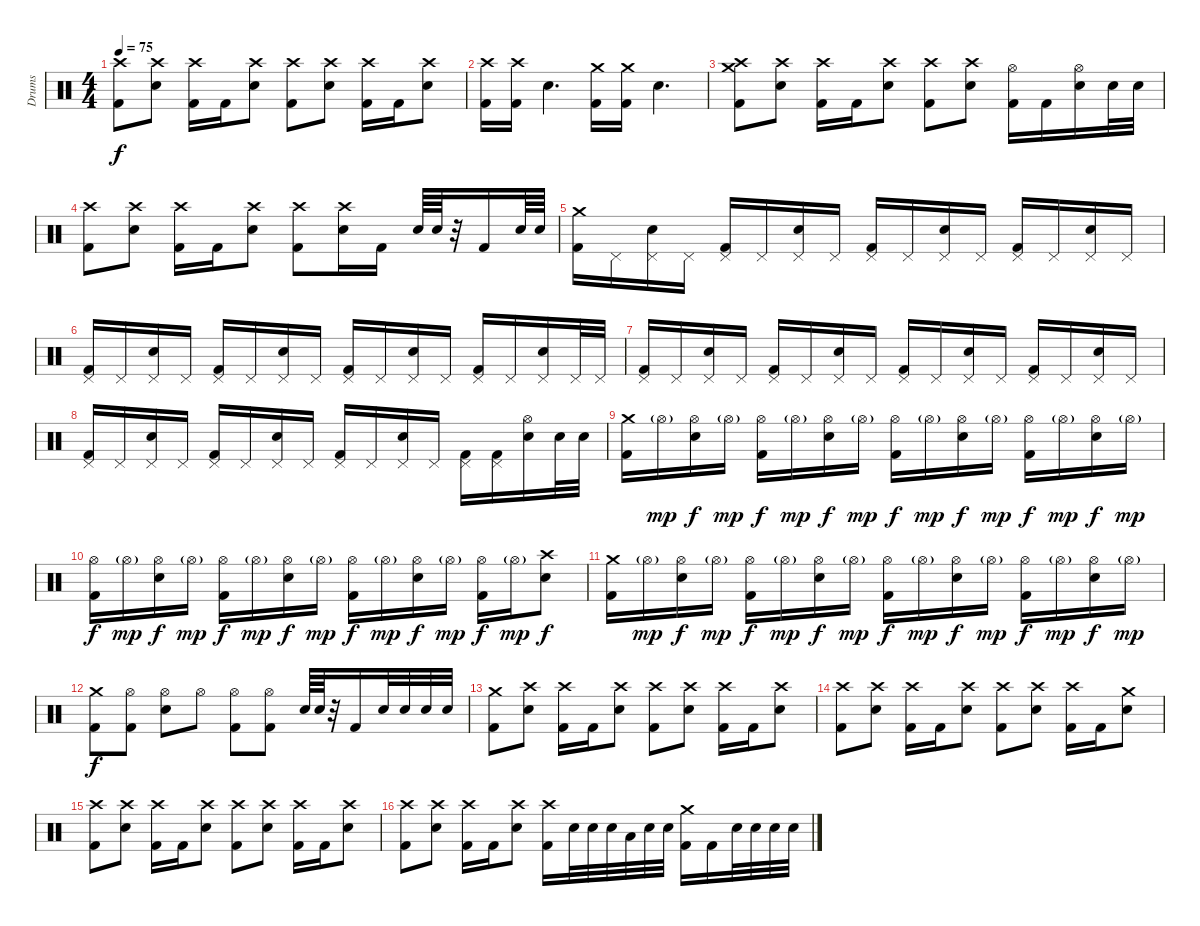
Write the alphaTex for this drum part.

\track ("Drums" "Drums") {instrument percussion bank 34}
\staff {score}
\articulation defaults
\ts (4 4)
\tempo 75
\clef neutral
\ks c
("Crash high (hit)" "Kick (hit) 2").8{dy f} ("Crash high (hit)" "Electric Snare (hit)").8 ("Crash high (hit)" "Kick (hit) 2").16 "Kick (hit) 2".16 ("Crash high (hit)" "Electric Snare (hit)").8 ("Crash high (hit)" "Kick (hit) 2").8 ("Crash high (hit)" "Electric Snare (hit)").8 ("Crash high (hit)" "Kick (hit) 2").16 "Kick (hit) 2".16 ("Crash high (hit)" "Electric Snare (hit)").8 |
("Crash high (hit)" "Kick (hit) 2").16 ("Crash high (hit)" "Kick (hit) 2").16 "Snare (hit)".4{d volume 0} ("Crash medium (hit)" "Kick (hit) 2").16{volume 16} ("Crash medium (hit)" "Kick (hit) 2").16 "Snare (hit)".4{d volume 0} |
("Crash medium (hit)" "Crash high (hit)" "Kick (hit) 2").8{volume 16} ("Crash high (hit)" "Electric Snare (hit)").8 ("Crash high (hit)" "Kick (hit) 2").16 "Kick (hit) 2".16 ("Crash high (hit)" "Electric Snare (hit)").8 ("Crash high (hit)" "Kick (hit) 2").8 ("Crash high (hit)" "Electric Snare (hit)").8 ("Hi-Hat (open)" "Kick (hit) 2").16 "Kick (hit) 2".16 ("Hi-Hat (open)" "Electric Snare (hit)").16 "Electric Snare (hit)".32 "Electric Snare (hit)".32 |
("Crash high (hit)" "Kick (hit) 2").8 ("Crash high (hit)" "Electric Snare (hit)").8 ("Crash high (hit)" "Kick (hit) 2").16 "Kick (hit) 2".16 ("Crash high (hit)" "Electric Snare (hit)").8 ("Crash high (hit)" "Kick (hit) 2").8 ("Crash high (hit)" "Electric Snare (hit)").16 "Kick (hit) 2".16 "Electric Snare (hit)".64 "Electric Snare (hit)".64 r.32 "Kick (hit) 2".16 "Electric Snare (hit)".64 "Electric Snare (hit)".64 |
("Crash medium (hit)" "Kick (hit) 2").16 "Pedal Hi-Hat (hit)".16 ("Pedal Hi-Hat (hit)" "Electric Snare (hit)").16 "Pedal Hi-Hat (hit)".16 ("Pedal Hi-Hat (hit)" "Kick (hit) 2").16 "Pedal Hi-Hat (hit)".16 ("Pedal Hi-Hat (hit)" "Electric Snare (hit)").16 "Pedal Hi-Hat (hit)".16 ("Pedal Hi-Hat (hit)" "Kick (hit) 2").16 "Pedal Hi-Hat (hit)".16 ("Pedal Hi-Hat (hit)" "Electric Snare (hit)").16 "Pedal Hi-Hat (hit)".16 ("Pedal Hi-Hat (hit)" "Kick (hit) 2").16 "Pedal Hi-Hat (hit)".16 ("Pedal Hi-Hat (hit)" "Electric Snare (hit)").16 "Pedal Hi-Hat (hit)".16 |
("Pedal Hi-Hat (hit)" "Kick (hit) 2").16 "Pedal Hi-Hat (hit)".16 ("Pedal Hi-Hat (hit)" "Electric Snare (hit)").16 "Pedal Hi-Hat (hit)".16 ("Pedal Hi-Hat (hit)" "Kick (hit) 2").16 "Pedal Hi-Hat (hit)".16 ("Pedal Hi-Hat (hit)" "Electric Snare (hit)").16 "Pedal Hi-Hat (hit)".16 ("Pedal Hi-Hat (hit)" "Kick (hit) 2").16 "Pedal Hi-Hat (hit)".16 ("Pedal Hi-Hat (hit)" "Electric Snare (hit)").16 "Pedal Hi-Hat (hit)".16 ("Pedal Hi-Hat (hit)" "Kick (hit) 2").16 "Pedal Hi-Hat (hit)".16 ("Pedal Hi-Hat (hit)" "Electric Snare (hit)").16 "Pedal Hi-Hat (hit)".32 "Pedal Hi-Hat (hit)".32 |
("Pedal Hi-Hat (hit)" "Kick (hit) 2").16 "Pedal Hi-Hat (hit)".16 ("Pedal Hi-Hat (hit)" "Electric Snare (hit)").16 "Pedal Hi-Hat (hit)".16 ("Pedal Hi-Hat (hit)" "Kick (hit) 2").16 "Pedal Hi-Hat (hit)".16 ("Pedal Hi-Hat (hit)" "Electric Snare (hit)").16 "Pedal Hi-Hat (hit)".16 ("Pedal Hi-Hat (hit)" "Kick (hit) 2").16 "Pedal Hi-Hat (hit)".16 ("Pedal Hi-Hat (hit)" "Electric Snare (hit)").16 "Pedal Hi-Hat (hit)".16 ("Pedal Hi-Hat (hit)" "Kick (hit) 2").16 "Pedal Hi-Hat (hit)".16 ("Pedal Hi-Hat (hit)" "Electric Snare (hit)").16 "Pedal Hi-Hat (hit)".16 |
("Pedal Hi-Hat (hit)" "Kick (hit) 2").16 "Pedal Hi-Hat (hit)".16 ("Pedal Hi-Hat (hit)" "Electric Snare (hit)").16 "Pedal Hi-Hat (hit)".16 ("Pedal Hi-Hat (hit)" "Kick (hit) 2").16 "Pedal Hi-Hat (hit)".16 ("Pedal Hi-Hat (hit)" "Electric Snare (hit)").16 "Pedal Hi-Hat (hit)".16 ("Pedal Hi-Hat (hit)" "Kick (hit) 2").16 "Pedal Hi-Hat (hit)".16 ("Pedal Hi-Hat (hit)" "Electric Snare (hit)").16 "Pedal Hi-Hat (hit)".16 ("Pedal Hi-Hat (hit)" "Kick (hit) 2").16 ("Pedal Hi-Hat (hit)" "Kick (hit) 2").16 ("Hi-Hat (open)" "Electric Snare (hit)").16 "Electric Snare (hit)".32 "Electric Snare (hit)".32 |
("Crash medium (hit)" "Kick (hit) 2").16 "Hi-Hat (open)"{g}.16{dy mp} ("Hi-Hat (open)" "Electric Snare (hit)").16{dy f} "Hi-Hat (open)"{g}.16{dy mp} ("Hi-Hat (open)" "Kick (hit) 2").16{dy f} "Hi-Hat (open)"{g}.16{dy mp} ("Hi-Hat (open)" "Electric Snare (hit)").16{dy f} "Hi-Hat (open)"{g}.16{dy mp} ("Hi-Hat (open)" "Kick (hit) 2").16{dy f} "Hi-Hat (open)"{g}.16{dy mp} ("Hi-Hat (open)" "Electric Snare (hit)").16{dy f} "Hi-Hat (open)"{g}.16{dy mp} ("Hi-Hat (open)" "Kick (hit) 2").16{dy f} "Hi-Hat (open)"{g}.16{dy mp} ("Hi-Hat (open)" "Electric Snare (hit)").16{dy f} "Hi-Hat (open)"{g}.16{dy mp} |
("Hi-Hat (open)" "Kick (hit) 2").16{dy f} "Hi-Hat (open)"{g}.16{dy mp} ("Hi-Hat (open)" "Electric Snare (hit)").16{dy f} "Hi-Hat (open)"{g}.16{dy mp} ("Hi-Hat (open)" "Kick (hit) 2").16{dy f} "Hi-Hat (open)"{g}.16{dy mp} ("Hi-Hat (open)" "Electric Snare (hit)").16{dy f} "Hi-Hat (open)"{g}.16{dy mp} ("Hi-Hat (open)" "Kick (hit) 2").16{dy f} "Hi-Hat (open)"{g}.16{dy mp} ("Hi-Hat (open)" "Electric Snare (hit)").16{dy f} "Hi-Hat (open)"{g}.16{dy mp} ("Hi-Hat (open)" "Kick (hit) 2").16{dy f} "Hi-Hat (open)"{g}.16{dy mp} ("Crash high (hit)" "Electric Snare (hit)").8{dy f} |
("Crash medium (hit)" "Kick (hit) 2").16 "Hi-Hat (open)"{g}.16{dy mp} ("Hi-Hat (open)" "Electric Snare (hit)").16{dy f} "Hi-Hat (open)"{g}.16{dy mp} ("Hi-Hat (open)" "Kick (hit) 2").16{dy f} "Hi-Hat (open)"{g}.16{dy mp} ("Hi-Hat (open)" "Electric Snare (hit)").16{dy f} "Hi-Hat (open)"{g}.16{dy mp} ("Hi-Hat (open)" "Kick (hit) 2").16{dy f} "Hi-Hat (open)"{g}.16{dy mp} ("Hi-Hat (open)" "Electric Snare (hit)").16{dy f} "Hi-Hat (open)"{g}.16{dy mp} ("Hi-Hat (open)" "Kick (hit) 2").16{dy f} "Hi-Hat (open)"{g}.16{dy mp} ("Hi-Hat (open)" "Electric Snare (hit)").16{dy f} "Hi-Hat (open)"{g}.16{dy mp} |
("Crash medium (hit)" "Kick (hit) 2").8{dy f} ("Hi-Hat (open)" "Kick (hit) 2").8 ("Hi-Hat (open)" "Electric Snare (hit)").8 "Hi-Hat (open)".8 ("Hi-Hat (open)" "Kick (hit) 2").8 ("Hi-Hat (open)" "Kick (hit) 2").8 "Electric Snare (hit)".64 "Electric Snare (hit)".64 r.32 "Kick (hit) 2".16 "Electric Snare (hit)".32 "Electric Snare (hit)".32 "Electric Snare (hit)".32 "Electric Snare (hit)".32 |
("Crash medium (hit)" "Kick (hit) 2").8 ("Crash high (hit)" "Electric Snare (hit)").8 ("Crash high (hit)" "Kick (hit) 2").16 "Kick (hit) 2".16 ("Crash high (hit)" "Electric Snare (hit)").8 ("Crash high (hit)" "Kick (hit) 2").8 ("Crash high (hit)" "Electric Snare (hit)").8 ("Crash high (hit)" "Kick (hit) 2").16 "Kick (hit) 2".16 ("Crash high (hit)" "Electric Snare (hit)").8 |
("Crash high (hit)" "Kick (hit) 2").8 ("Crash high (hit)" "Electric Snare (hit)").8 ("Crash high (hit)" "Kick (hit) 2").16 "Kick (hit) 2".16 ("Crash high (hit)" "Electric Snare (hit)").8 ("Crash high (hit)" "Kick (hit) 2").8 ("Crash high (hit)" "Electric Snare (hit)").8 ("Crash high (hit)" "Kick (hit) 2").16 "Kick (hit) 2".16 ("Crash medium (hit)" "Electric Snare (hit)").8 |
("Crash high (hit)" "Kick (hit) 2").8 ("Crash high (hit)" "Electric Snare (hit)").8 ("Crash high (hit)" "Kick (hit) 2").16 "Kick (hit) 2".16 ("Crash high (hit)" "Electric Snare (hit)").8 ("Crash high (hit)" "Kick (hit) 2").8 ("Crash high (hit)" "Electric Snare (hit)").8 ("Crash high (hit)" "Kick (hit) 2").16 "Kick (hit) 2".16 ("Crash high (hit)" "Electric Snare (hit)").8 |
("Crash high (hit)" "Kick (hit) 2").8 ("Crash high (hit)" "Electric Snare (hit)").8 ("Crash high (hit)" "Kick (hit) 2").16 "Kick (hit) 2".16 ("Crash high (hit)" "Electric Snare (hit)").8 ("Crash high (hit)" "Kick (hit) 2").16 "Electric Snare (hit)".32 "Electric Snare (hit)".32 "Electric Snare (hit)".32 "Low Tom (hit)".32 "Electric Snare (hit)".32 "Electric Snare (hit)".32 ("Crash medium (hit)" "Kick (hit) 2").16 "Kick (hit) 2".16 "Electric Snare (hit)".32 "Electric Snare (hit)".32 "Electric Snare (hit)".32 "Electric Snare (hit)".32
